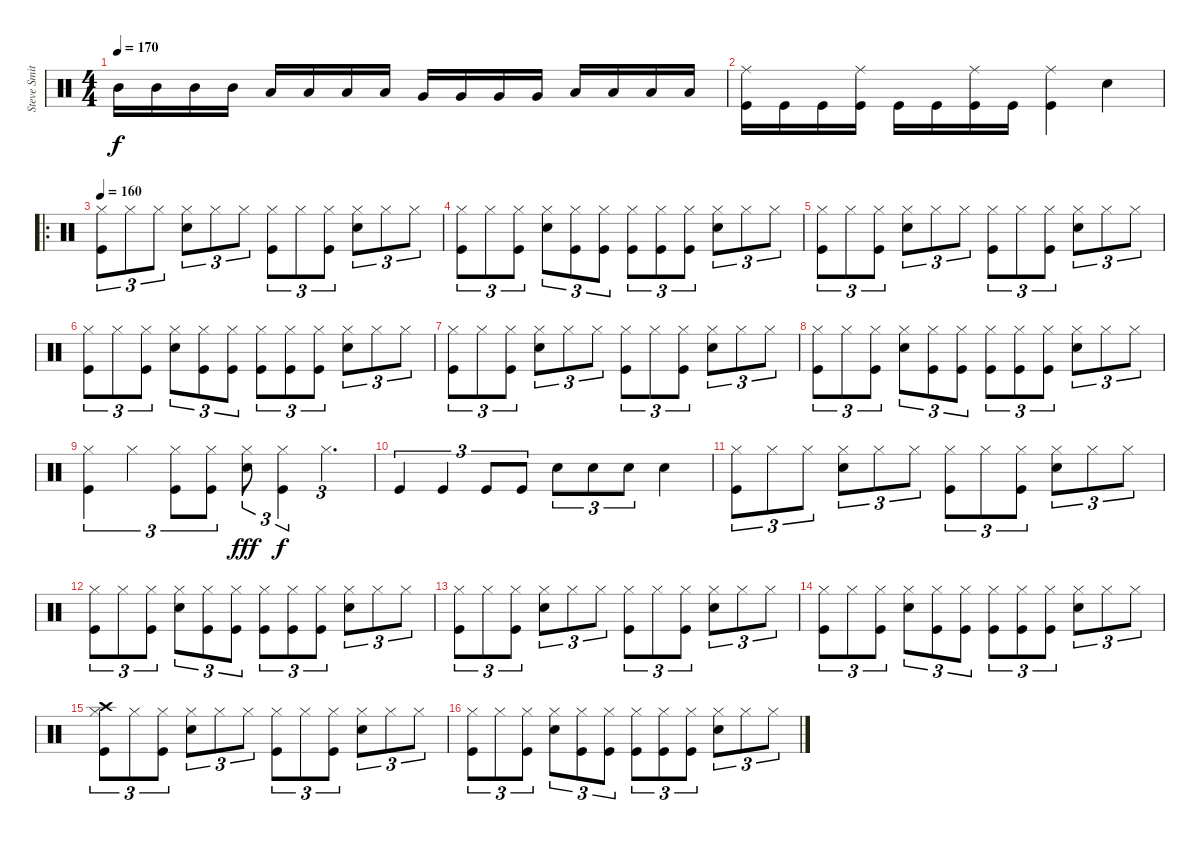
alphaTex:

\track ("Steve Smith" "Steve Smit") {instrument percussion}
\staff {score}
\articulation defaults
\ts (4 4)
\tempo 170
\tempo 180
\tempo 170
\clef neutral
\ks c "Mid Tom (hit)".16{dy f} "Mid Tom (hit)".16 "Mid Tom (hit)".16 "Mid Tom (hit)".16 "Low Tom (hit)".16 "Low Tom (hit)".16 "Low Tom (hit)".16 "Low Tom (hit)".16 "Very Low Tom (hit)".16 "Very Low Tom (hit)".16 "Very Low Tom (hit)".16 "Very Low Tom (hit)".16 "Low Floor Tom (hit)".16 "Low Floor Tom (hit)".16 "Low Floor Tom (hit)".16 "Low Floor Tom (hit)".16
|
("Ride (middle)" "Kick (hit)").16 "Kick (hit)".16 "Kick (hit)".16 ("Ride (middle)" "Kick (hit)").16 "Kick (hit)".16 "Kick (hit)".16 ("Ride (middle)" "Kick (hit)").16 "Kick (hit)".16 ("Ride (middle)" "Kick (hit)").4 "Snare (hit) 2".4 |
\ro
\tempo 160
("Hi-Hat (closed)" "Kick (hit)").8{tu (3 2)} "Hi-Hat (closed)".8{tu (3 2)} "Hi-Hat (closed)".8{tu (3 2)} ("Hi-Hat (closed)" "Snare (hit) 2").8{tu (3 2)} "Hi-Hat (closed)".8{tu (3 2)} "Hi-Hat (closed)".8{tu (3 2)} ("Hi-Hat (closed)" "Kick (hit)").8{tu (3 2)} "Hi-Hat (closed)".8{tu (3 2)} ("Hi-Hat (closed)" "Kick (hit)").8{tu (3 2)} ("Hi-Hat (closed)" "Snare (hit) 2").8{tu (3 2)} "Hi-Hat (closed)".8{tu (3 2)} "Hi-Hat (closed)".8{tu (3 2)} |
("Hi-Hat (closed)" "Kick (hit)").8{tu (3 2)} "Hi-Hat (closed)".8{tu (3 2)} ("Hi-Hat (closed)" "Kick (hit)").8{tu (3 2)} ("Hi-Hat (closed)" "Snare (hit) 2").8{tu (3 2)} ("Hi-Hat (closed)" "Kick (hit)").8{tu (3 2)} ("Hi-Hat (closed)" "Kick (hit)").8{tu (3 2)} ("Hi-Hat (closed)" "Kick (hit)").8{tu (3 2)} ("Hi-Hat (closed)" "Kick (hit)").8{tu (3 2)} ("Hi-Hat (closed)" "Kick (hit)").8{tu (3 2)} ("Hi-Hat (closed)" "Snare (hit) 2").8{tu (3 2)} "Hi-Hat (closed)".8{tu (3 2)} "Hi-Hat (closed)".8{tu (3 2)} |
("Hi-Hat (closed)" "Kick (hit)").8{tu (3 2)} "Hi-Hat (closed)".8{tu (3 2)} ("Hi-Hat (closed)" "Kick (hit)").8{tu (3 2)} ("Hi-Hat (closed)" "Snare (hit) 2").8{tu (3 2)} "Hi-Hat (closed)".8{tu (3 2)} "Hi-Hat (closed)".8{tu (3 2)} ("Hi-Hat (closed)" "Kick (hit)").8{tu (3 2)} "Hi-Hat (closed)".8{tu (3 2)} ("Hi-Hat (closed)" "Kick (hit)").8{tu (3 2)} ("Hi-Hat (closed)" "Snare (hit) 2").8{tu (3 2)} "Hi-Hat (closed)".8{tu (3 2)} "Hi-Hat (closed)".8{tu (3 2)} |
("Hi-Hat (closed)" "Kick (hit)").8{tu (3 2)} "Hi-Hat (closed)".8{tu (3 2)} ("Hi-Hat (closed)" "Kick (hit)").8{tu (3 2)} ("Hi-Hat (closed)" "Snare (hit) 2").8{tu (3 2)} ("Hi-Hat (closed)" "Kick (hit)").8{tu (3 2)} ("Hi-Hat (closed)" "Kick (hit)").8{tu (3 2)} ("Hi-Hat (closed)" "Kick (hit)").8{tu (3 2)} ("Hi-Hat (closed)" "Kick (hit)").8{tu (3 2)} ("Hi-Hat (closed)" "Kick (hit)").8{tu (3 2)} ("Hi-Hat (closed)" "Snare (hit) 2").8{tu (3 2)} "Hi-Hat (closed)".8{tu (3 2)} "Hi-Hat (closed)".8{tu (3 2)} |
("Hi-Hat (closed)" "Kick (hit)").8{tu (3 2)} "Hi-Hat (closed)".8{tu (3 2)} ("Hi-Hat (closed)" "Kick (hit)").8{tu (3 2)} ("Hi-Hat (closed)" "Snare (hit) 2").8{tu (3 2)} "Hi-Hat (closed)".8{tu (3 2)} "Hi-Hat (closed)".8{tu (3 2)} ("Hi-Hat (closed)" "Kick (hit)").8{tu (3 2)} "Hi-Hat (closed)".8{tu (3 2)} ("Hi-Hat (closed)" "Kick (hit)").8{tu (3 2)} ("Hi-Hat (closed)" "Snare (hit) 2").8{tu (3 2)} "Hi-Hat (closed)".8{tu (3 2)} "Hi-Hat (closed)".8{tu (3 2)} |
("Hi-Hat (closed)" "Kick (hit)").8{tu (3 2)} "Hi-Hat (closed)".8{tu (3 2)} ("Hi-Hat (closed)" "Kick (hit)").8{tu (3 2)} ("Hi-Hat (closed)" "Snare (hit) 2").8{tu (3 2)} ("Hi-Hat (closed)" "Kick (hit)").8{tu (3 2)} ("Hi-Hat (closed)" "Kick (hit)").8{tu (3 2)} ("Hi-Hat (closed)" "Kick (hit)").8{tu (3 2)} ("Hi-Hat (closed)" "Kick (hit)").8{tu (3 2)} ("Hi-Hat (closed)" "Kick (hit)").8{tu (3 2)} ("Hi-Hat (closed)" "Snare (hit) 2").8{tu (3 2)} "Hi-Hat (closed)".8{tu (3 2)} "Hi-Hat (closed)".8{tu (3 2)} |
("Hi-Hat (closed)" "Kick (hit)").4{tu (3 2)} "Hi-Hat (closed)".4{tu (3 2)} ("Hi-Hat (closed)" "Kick (hit)").8{tu (3 2)} ("Hi-Hat (closed)" "Kick (hit)").8{tu (3 2)} ("Hi-Hat (closed)" "Snare (hit) 2").8{tu (3 2) dy fff} ("Hi-Hat (closed)" "Kick (hit)").4{tu (3 2) dy f} "Hi-Hat (closed)".4{d tu (3 2)} |
"Kick (hit)".4{tu (3 2)} "Kick (hit)".4{tu (3 2)} "Kick (hit)".8{tu (3 2)} "Kick (hit)".8{tu (3 2)} "Snare (hit) 2".8{tu (3 2)} "Snare (hit) 2".8{tu (3 2)} "Snare (hit) 2".8{tu (3 2)} "Snare (hit) 2".4 |
("Hi-Hat (closed)" "Kick (hit)").8{tu (3 2)} "Hi-Hat (closed)".8{tu (3 2)} "Hi-Hat (closed)".8{tu (3 2)} ("Hi-Hat (closed)" "Snare (hit) 2").8{tu (3 2)} "Hi-Hat (closed)".8{tu (3 2)} "Hi-Hat (closed)".8{tu (3 2)} ("Hi-Hat (closed)" "Kick (hit)").8{tu (3 2)} "Hi-Hat (closed)".8{tu (3 2)} ("Hi-Hat (closed)" "Kick (hit)").8{tu (3 2)} ("Hi-Hat (closed)" "Snare (hit) 2").8{tu (3 2)} "Hi-Hat (closed)".8{tu (3 2)} "Hi-Hat (closed)".8{tu (3 2)} |
("Hi-Hat (closed)" "Kick (hit)").8{tu (3 2)} "Hi-Hat (closed)".8{tu (3 2)} ("Hi-Hat (closed)" "Kick (hit)").8{tu (3 2)} ("Hi-Hat (closed)" "Snare (hit) 2").8{tu (3 2)} ("Hi-Hat (closed)" "Kick (hit)").8{tu (3 2)} ("Hi-Hat (closed)" "Kick (hit)").8{tu (3 2)} ("Hi-Hat (closed)" "Kick (hit)").8{tu (3 2)} ("Hi-Hat (closed)" "Kick (hit)").8{tu (3 2)} ("Hi-Hat (closed)" "Kick (hit)").8{tu (3 2)} ("Hi-Hat (closed)" "Snare (hit) 2").8{tu (3 2)} "Hi-Hat (closed)".8{tu (3 2)} "Hi-Hat (closed)".8{tu (3 2)} |
("Hi-Hat (closed)" "Kick (hit)").8{tu (3 2)} "Hi-Hat (closed)".8{tu (3 2)} ("Hi-Hat (closed)" "Kick (hit)").8{tu (3 2)} ("Hi-Hat (closed)" "Snare (hit) 2").8{tu (3 2)} "Hi-Hat (closed)".8{tu (3 2)} "Hi-Hat (closed)".8{tu (3 2)} ("Hi-Hat (closed)" "Kick (hit)").8{tu (3 2)} "Hi-Hat (closed)".8{tu (3 2)} ("Hi-Hat (closed)" "Kick (hit)").8{tu (3 2)} ("Hi-Hat (closed)" "Snare (hit) 2").8{tu (3 2)} "Hi-Hat (closed)".8{tu (3 2)} "Hi-Hat (closed)".8{tu (3 2)} |
("Hi-Hat (closed)" "Kick (hit)").8{tu (3 2)} "Hi-Hat (closed)".8{tu (3 2)} ("Hi-Hat (closed)" "Kick (hit)").8{tu (3 2)} ("Hi-Hat (closed)" "Snare (hit) 2").8{tu (3 2)} ("Hi-Hat (closed)" "Kick (hit)").8{tu (3 2)} ("Hi-Hat (closed)" "Kick (hit)").8{tu (3 2)} ("Hi-Hat (closed)" "Kick (hit)").8{tu (3 2)} ("Hi-Hat (closed)" "Kick (hit)").8{tu (3 2)} ("Hi-Hat (closed)" "Kick (hit)").8{tu (3 2)} ("Hi-Hat (closed)" "Snare (hit) 2").8{tu (3 2)} "Hi-Hat (closed)".8{tu (3 2)} "Hi-Hat (closed)".8{tu (3 2)} |
("Hi-Hat (closed)" "Crash high (hit)" "Kick (hit)").8{tu (3 2)} "Hi-Hat (closed)".8{tu (3 2)} ("Hi-Hat (closed)" "Kick (hit)").8{tu (3 2)} ("Hi-Hat (closed)" "Snare (hit) 2").8{tu (3 2)} "Hi-Hat (closed)".8{tu (3 2)} "Hi-Hat (closed)".8{tu (3 2)} ("Hi-Hat (closed)" "Kick (hit)").8{tu (3 2)} "Hi-Hat (closed)".8{tu (3 2)} ("Hi-Hat (closed)" "Kick (hit)").8{tu (3 2)} ("Hi-Hat (closed)" "Snare (hit) 2").8{tu (3 2)} "Hi-Hat (closed)".8{tu (3 2)} "Hi-Hat (closed)".8{tu (3 2)} |
("Hi-Hat (closed)" "Kick (hit)").8{tu (3 2)} "Hi-Hat (closed)".8{tu (3 2)} ("Hi-Hat (closed)" "Kick (hit)").8{tu (3 2)} ("Hi-Hat (closed)" "Snare (hit) 2").8{tu (3 2)} ("Hi-Hat (closed)" "Kick (hit)").8{tu (3 2)} ("Hi-Hat (closed)" "Kick (hit)").8{tu (3 2)} ("Hi-Hat (closed)" "Kick (hit)").8{tu (3 2)} ("Hi-Hat (closed)" "Kick (hit)").8{tu (3 2)} ("Hi-Hat (closed)" "Kick (hit)").8{tu (3 2)} ("Hi-Hat (closed)" "Snare (hit) 2").8{tu (3 2)} "Hi-Hat (closed)".8{tu (3 2)} "Hi-Hat (closed)".8{tu (3 2)}
